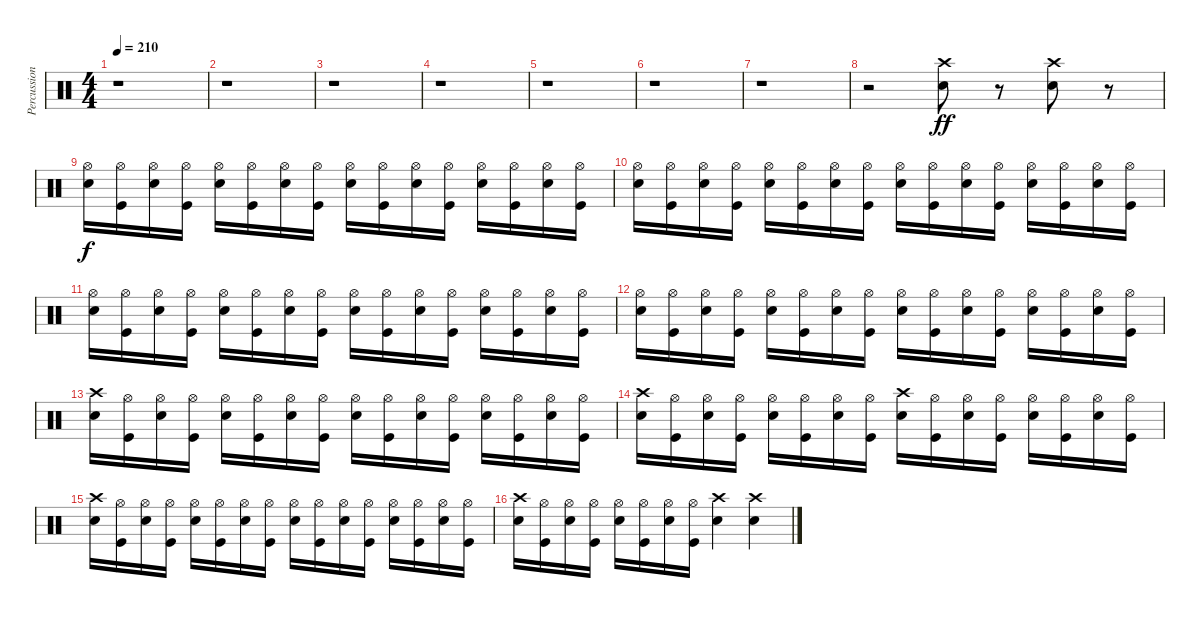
\track ("Percussion" "Percussion") {instrument percussion}
\staff {score}
\articulation defaults
\ts (4 4)
\tempo 210
\clef neutral
\ks c
r.1{dy ff} |
r.1 |
r.1 |
r.1 |
r.1 |
r.1 |
r.1 |
r.2 ("Crash high (hit)" "Snare (hit) 2").8 r.8 ("Crash high (hit)" "Snare (hit) 2").8 r.8 |
("Hi-Hat (open)" "Snare (hit) 2").16{dy f} ("Hi-Hat (open)" "Kick (hit)").16 ("Hi-Hat (open)" "Snare (hit) 2").16 ("Hi-Hat (open)" "Kick (hit)").16 ("Hi-Hat (open)" "Snare (hit) 2").16 ("Hi-Hat (open)" "Kick (hit)").16 ("Hi-Hat (open)" "Snare (hit) 2").16 ("Hi-Hat (open)" "Kick (hit)").16 ("Hi-Hat (open)" "Snare (hit) 2").16 ("Hi-Hat (open)" "Kick (hit)").16 ("Hi-Hat (open)" "Snare (hit) 2").16 ("Hi-Hat (open)" "Kick (hit)").16 ("Hi-Hat (open)" "Snare (hit) 2").16 ("Hi-Hat (open)" "Kick (hit)").16 ("Hi-Hat (open)" "Snare (hit) 2").16 ("Hi-Hat (open)" "Kick (hit)").16 |
("Hi-Hat (open)" "Snare (hit) 2").16 ("Hi-Hat (open)" "Kick (hit)").16 ("Hi-Hat (open)" "Snare (hit) 2").16 ("Hi-Hat (open)" "Kick (hit)").16 ("Hi-Hat (open)" "Snare (hit) 2").16 ("Hi-Hat (open)" "Kick (hit)").16 ("Hi-Hat (open)" "Snare (hit) 2").16 ("Hi-Hat (open)" "Kick (hit)").16 ("Hi-Hat (open)" "Snare (hit) 2").16 ("Hi-Hat (open)" "Kick (hit)").16 ("Hi-Hat (open)" "Snare (hit) 2").16 ("Hi-Hat (open)" "Kick (hit)").16 ("Hi-Hat (open)" "Snare (hit) 2").16 ("Hi-Hat (open)" "Kick (hit)").16 ("Hi-Hat (open)" "Snare (hit) 2").16 ("Hi-Hat (open)" "Kick (hit)").16 |
("Hi-Hat (open)" "Snare (hit) 2").16 ("Hi-Hat (open)" "Kick (hit)").16 ("Hi-Hat (open)" "Snare (hit) 2").16 ("Hi-Hat (open)" "Kick (hit)").16 ("Hi-Hat (open)" "Snare (hit) 2").16 ("Hi-Hat (open)" "Kick (hit)").16 ("Hi-Hat (open)" "Snare (hit) 2").16 ("Hi-Hat (open)" "Kick (hit)").16 ("Hi-Hat (open)" "Snare (hit) 2").16 ("Hi-Hat (open)" "Kick (hit)").16 ("Hi-Hat (open)" "Snare (hit) 2").16 ("Hi-Hat (open)" "Kick (hit)").16 ("Hi-Hat (open)" "Snare (hit) 2").16 ("Hi-Hat (open)" "Kick (hit)").16 ("Hi-Hat (open)" "Snare (hit) 2").16 ("Hi-Hat (open)" "Kick (hit)").16 |
("Hi-Hat (open)" "Snare (hit) 2").16 ("Hi-Hat (open)" "Kick (hit)").16 ("Hi-Hat (open)" "Snare (hit) 2").16 ("Hi-Hat (open)" "Kick (hit)").16 ("Hi-Hat (open)" "Snare (hit) 2").16 ("Hi-Hat (open)" "Kick (hit)").16 ("Hi-Hat (open)" "Snare (hit) 2").16 ("Hi-Hat (open)" "Kick (hit)").16 ("Hi-Hat (open)" "Snare (hit) 2").16 ("Hi-Hat (open)" "Kick (hit)").16 ("Hi-Hat (open)" "Snare (hit) 2").16 ("Hi-Hat (open)" "Kick (hit)").16 ("Hi-Hat (open)" "Snare (hit) 2").16 ("Hi-Hat (open)" "Kick (hit)").16 ("Hi-Hat (open)" "Snare (hit) 2").16 ("Hi-Hat (open)" "Kick (hit)").16 |
("Crash high (hit)" "Snare (hit) 2").16 ("Hi-Hat (open)" "Kick (hit)").16 ("Hi-Hat (open)" "Snare (hit) 2").16 ("Hi-Hat (open)" "Kick (hit)").16 ("Hi-Hat (open)" "Snare (hit) 2").16 ("Hi-Hat (open)" "Kick (hit)").16 ("Hi-Hat (open)" "Snare (hit) 2").16 ("Hi-Hat (open)" "Kick (hit)").16 ("Hi-Hat (open)" "Snare (hit) 2").16 ("Hi-Hat (open)" "Kick (hit)").16 ("Hi-Hat (open)" "Snare (hit) 2").16 ("Hi-Hat (open)" "Kick (hit)").16 ("Hi-Hat (open)" "Snare (hit) 2").16 ("Hi-Hat (open)" "Kick (hit)").16 ("Hi-Hat (open)" "Snare (hit) 2").16 ("Hi-Hat (open)" "Kick (hit)").16 |
("Crash high (hit)" "Snare (hit) 2").16 ("Hi-Hat (open)" "Kick (hit)").16 ("Hi-Hat (open)" "Snare (hit) 2").16 ("Hi-Hat (open)" "Kick (hit)").16 ("Hi-Hat (open)" "Snare (hit) 2").16 ("Hi-Hat (open)" "Kick (hit)").16 ("Hi-Hat (open)" "Snare (hit) 2").16 ("Hi-Hat (open)" "Kick (hit)").16 ("Crash high (hit)" "Snare (hit) 2").16 ("Hi-Hat (open)" "Kick (hit)").16 ("Hi-Hat (open)" "Snare (hit) 2").16 ("Hi-Hat (open)" "Kick (hit)").16 ("Hi-Hat (open)" "Snare (hit) 2").16 ("Hi-Hat (open)" "Kick (hit)").16 ("Hi-Hat (open)" "Snare (hit) 2").16 ("Hi-Hat (open)" "Kick (hit)").16 |
("Crash high (hit)" "Snare (hit) 2").16 ("Hi-Hat (open)" "Kick (hit)").16 ("Hi-Hat (open)" "Snare (hit) 2").16 ("Hi-Hat (open)" "Kick (hit)").16 ("Hi-Hat (open)" "Snare (hit) 2").16 ("Hi-Hat (open)" "Kick (hit)").16 ("Hi-Hat (open)" "Snare (hit) 2").16 ("Hi-Hat (open)" "Kick (hit)").16 ("Hi-Hat (open)" "Snare (hit) 2").16 ("Hi-Hat (open)" "Kick (hit)").16 ("Hi-Hat (open)" "Snare (hit) 2").16 ("Hi-Hat (open)" "Kick (hit)").16 ("Hi-Hat (open)" "Snare (hit) 2").16 ("Hi-Hat (open)" "Kick (hit)").16 ("Hi-Hat (open)" "Snare (hit) 2").16 ("Hi-Hat (open)" "Kick (hit)").16 |
("Crash high (hit)" "Snare (hit) 2").16 ("Hi-Hat (open)" "Kick (hit)").16 ("Hi-Hat (open)" "Snare (hit) 2").16 ("Hi-Hat (open)" "Kick (hit)").16 ("Hi-Hat (open)" "Snare (hit) 2").16 ("Hi-Hat (open)" "Kick (hit)").16 ("Hi-Hat (open)" "Snare (hit) 2").16 ("Hi-Hat (open)" "Kick (hit)").16 ("Snare (hit) 2" "Crash high (hit)").4 ("Snare (hit) 2" "Crash high (hit)").4
